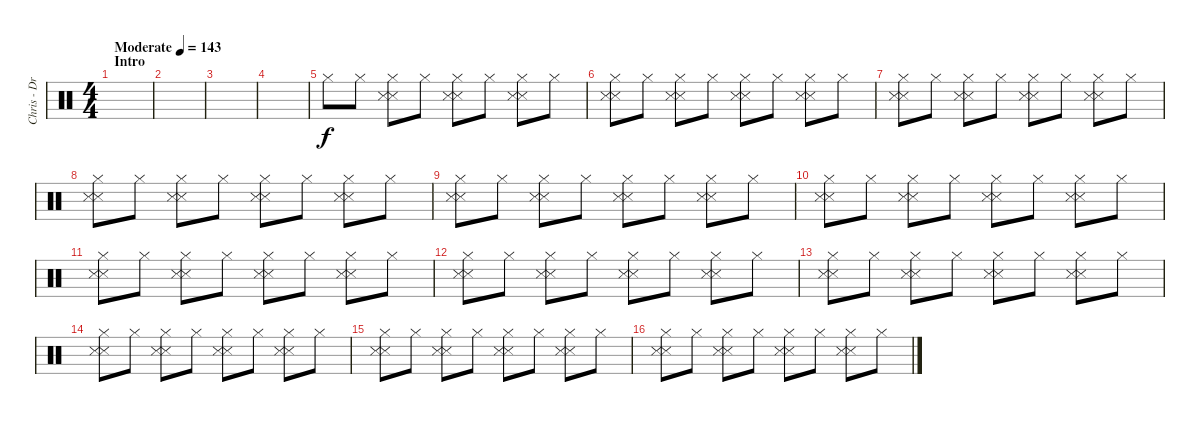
\track ("Chris - Drums" "Chris - Dr") {instrument percussion}
\staff {score}
\articulation defaults
\ts (4 4)
\section ("" "Intro")
\tempo (143 "Moderate")
\clef neutral
\ks c
|
|
|
|
"Hi-Hat (closed)".8 "Hi-Hat (closed)".8 ("Hi-Hat (closed)" "Snare (side stick) 3" "Snare (side stick) 3").8 "Hi-Hat (closed)".8 ("Hi-Hat (closed)" "Snare (side stick) 3" "Snare (side stick) 3").8 "Hi-Hat (closed)".8 ("Hi-Hat (closed)" "Snare (side stick) 3" "Snare (side stick) 3").8 "Hi-Hat (closed)".8 |
("Hi-Hat (closed)" "Snare (side stick) 3" "Snare (side stick) 3").8 "Hi-Hat (closed)".8 ("Hi-Hat (closed)" "Snare (side stick) 3" "Snare (side stick) 3").8 "Hi-Hat (closed)".8 ("Hi-Hat (closed)" "Snare (side stick) 3" "Snare (side stick) 3").8 "Hi-Hat (closed)".8 ("Hi-Hat (closed)" "Snare (side stick) 3" "Snare (side stick) 3").8 "Hi-Hat (closed)".8 |
("Hi-Hat (closed)" "Snare (side stick) 3" "Snare (side stick) 3").8 "Hi-Hat (closed)".8 ("Hi-Hat (closed)" "Snare (side stick) 3" "Snare (side stick) 3").8 "Hi-Hat (closed)".8 ("Hi-Hat (closed)" "Snare (side stick) 3" "Snare (side stick) 3").8 "Hi-Hat (closed)".8 ("Hi-Hat (closed)" "Snare (side stick) 3" "Snare (side stick) 3").8 "Hi-Hat (closed)".8 |
("Hi-Hat (closed)" "Snare (side stick) 3" "Snare (side stick) 3").8 "Hi-Hat (closed)".8 ("Hi-Hat (closed)" "Snare (side stick) 3" "Snare (side stick) 3").8 "Hi-Hat (closed)".8 ("Hi-Hat (closed)" "Snare (side stick) 3" "Snare (side stick) 3").8 "Hi-Hat (closed)".8 ("Hi-Hat (closed)" "Snare (side stick) 3" "Snare (side stick) 3").8 "Hi-Hat (closed)".8 |
("Hi-Hat (closed)" "Snare (side stick) 3" "Snare (side stick) 3").8 "Hi-Hat (closed)".8 ("Hi-Hat (closed)" "Snare (side stick) 3" "Snare (side stick) 3").8 "Hi-Hat (closed)".8 ("Hi-Hat (closed)" "Snare (side stick) 3" "Snare (side stick) 3").8 "Hi-Hat (closed)".8 ("Hi-Hat (closed)" "Snare (side stick) 3" "Snare (side stick) 3").8 "Hi-Hat (closed)".8 |
("Hi-Hat (closed)" "Snare (side stick) 3" "Snare (side stick) 3").8 "Hi-Hat (closed)".8 ("Hi-Hat (closed)" "Snare (side stick) 3" "Snare (side stick) 3").8 "Hi-Hat (closed)".8 ("Hi-Hat (closed)" "Snare (side stick) 3" "Snare (side stick) 3").8 "Hi-Hat (closed)".8 ("Hi-Hat (closed)" "Snare (side stick) 3" "Snare (side stick) 3").8 "Hi-Hat (closed)".8 |
("Hi-Hat (closed)" "Snare (side stick) 3" "Snare (side stick) 3").8 "Hi-Hat (closed)".8 ("Hi-Hat (closed)" "Snare (side stick) 3" "Snare (side stick) 3").8 "Hi-Hat (closed)".8 ("Hi-Hat (closed)" "Snare (side stick) 3" "Snare (side stick) 3").8 "Hi-Hat (closed)".8 ("Hi-Hat (closed)" "Snare (side stick) 3" "Snare (side stick) 3").8 "Hi-Hat (closed)".8 |
("Hi-Hat (closed)" "Snare (side stick) 3" "Snare (side stick) 3").8 "Hi-Hat (closed)".8 ("Hi-Hat (closed)" "Snare (side stick) 3" "Snare (side stick) 3").8 "Hi-Hat (closed)".8 ("Hi-Hat (closed)" "Snare (side stick) 3" "Snare (side stick) 3").8 "Hi-Hat (closed)".8 ("Hi-Hat (closed)" "Snare (side stick) 3" "Snare (side stick) 3").8 "Hi-Hat (closed)".8 |
("Hi-Hat (closed)" "Snare (side stick) 3" "Snare (side stick) 3").8 "Hi-Hat (closed)".8 ("Hi-Hat (closed)" "Snare (side stick) 3" "Snare (side stick) 3").8 "Hi-Hat (closed)".8 ("Hi-Hat (closed)" "Snare (side stick) 3" "Snare (side stick) 3").8 "Hi-Hat (closed)".8 ("Hi-Hat (closed)" "Snare (side stick) 3" "Snare (side stick) 3").8 "Hi-Hat (closed)".8 |
("Hi-Hat (closed)" "Snare (side stick) 3" "Snare (side stick) 3").8 "Hi-Hat (closed)".8 ("Hi-Hat (closed)" "Snare (side stick) 3" "Snare (side stick) 3").8 "Hi-Hat (closed)".8 ("Hi-Hat (closed)" "Snare (side stick) 3" "Snare (side stick) 3").8 "Hi-Hat (closed)".8 ("Hi-Hat (closed)" "Snare (side stick) 3" "Snare (side stick) 3").8 "Hi-Hat (closed)".8 |
("Hi-Hat (closed)" "Snare (side stick) 3" "Snare (side stick) 3").8 "Hi-Hat (closed)".8 ("Hi-Hat (closed)" "Snare (side stick) 3" "Snare (side stick) 3").8 "Hi-Hat (closed)".8 ("Hi-Hat (closed)" "Snare (side stick) 3" "Snare (side stick) 3").8 "Hi-Hat (closed)".8 ("Hi-Hat (closed)" "Snare (side stick) 3" "Snare (side stick) 3").8 "Hi-Hat (closed)".8 |
("Hi-Hat (closed)" "Snare (side stick) 3" "Snare (side stick) 3").8 "Hi-Hat (closed)".8 ("Hi-Hat (closed)" "Snare (side stick) 3" "Snare (side stick) 3").8 "Hi-Hat (closed)".8 ("Hi-Hat (closed)" "Snare (side stick) 3" "Snare (side stick) 3").8 "Hi-Hat (closed)".8 ("Hi-Hat (closed)" "Snare (side stick) 3" "Snare (side stick) 3").8 "Hi-Hat (closed)".8
